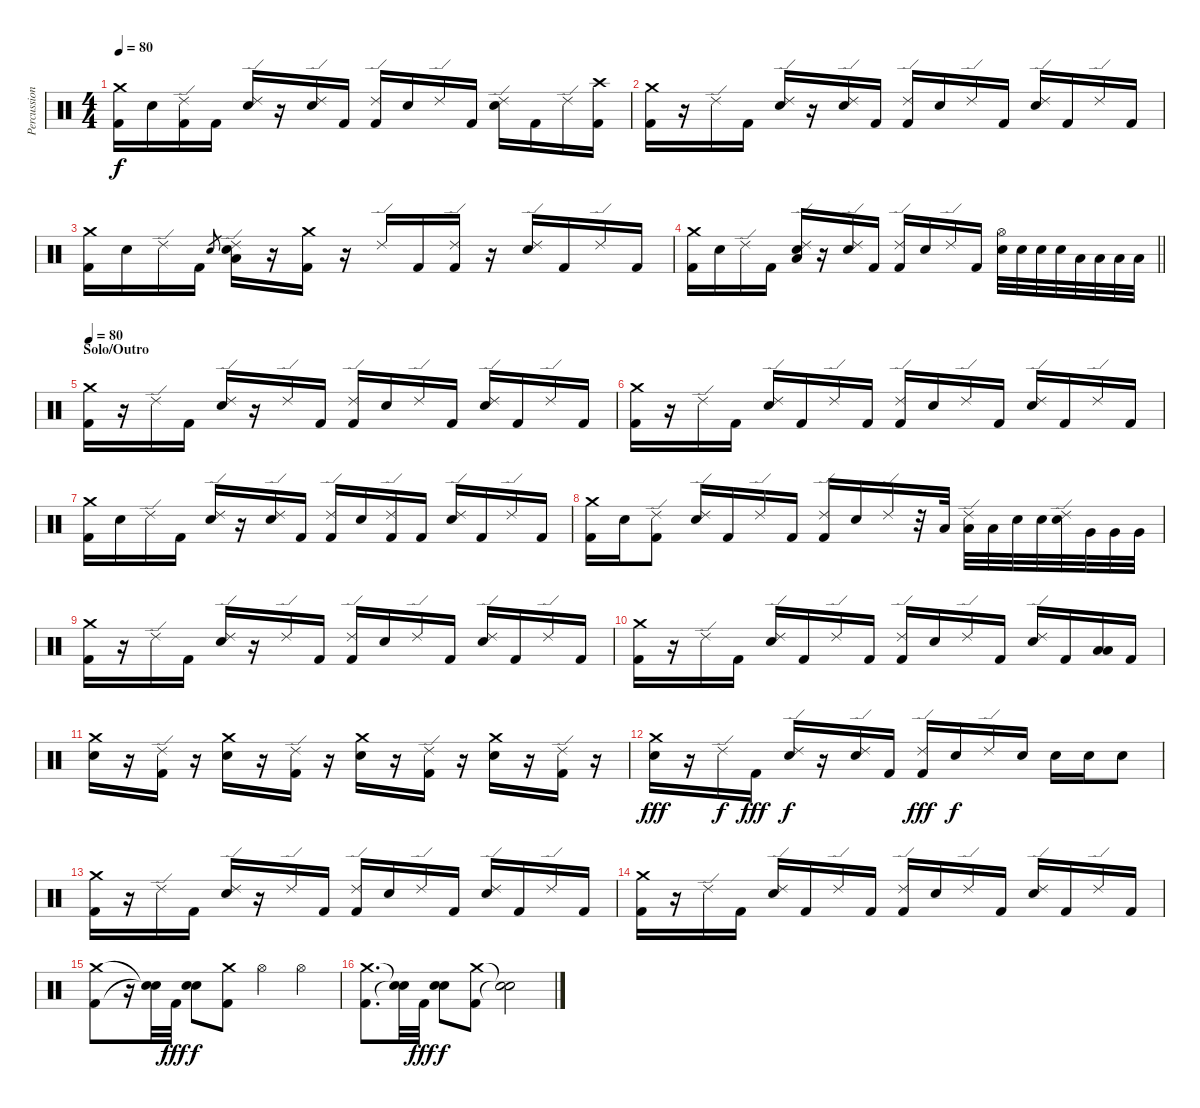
\track ("Percussion (Phillips)" "Percussion") {instrument percussion}
\staff {score}
\articulation defaults
\ts (4 4)
\tempo 80
\clef neutral
\ks c
("Crash medium (hit)" "Kick (hit) 2").16{dy f} "Electric Snare (hit)".16 ("Ride (edge) 2" "Kick (hit) 2").16 "Kick (hit) 2".16 ("Ride (edge) 2" "Electric Snare (hit)").16 r.16 ("Ride (edge) 2" "Electric Snare (hit)").16 "Kick (hit) 2".16 ("Ride (edge) 2" "Kick (hit) 2").16 "Electric Snare (hit)".16 "Ride (edge) 2".16 "Kick (hit) 2".16 ("Ride (edge) 2" "Electric Snare (hit)").16 "Kick (hit) 2".16 "Ride (edge) 2".16 ("Crash high (hit)" "Kick (hit) 2").16 |
("Crash medium (hit)" "Kick (hit) 2").16 r.16 "Ride (edge) 2".16 "Kick (hit) 2".16 ("Ride (edge) 2" "Electric Snare (hit)").16 r.16 ("Ride (edge) 2" "Electric Snare (hit)").16 "Kick (hit) 2".16 ("Ride (edge) 2" "Kick (hit) 2").16 "Electric Snare (hit)".16 "Ride (edge) 2".16 "Kick (hit) 2".16 ("Ride (edge) 2" "Electric Snare (hit)").16 "Kick (hit) 2".16 "Ride (edge) 2".16 "Kick (hit) 2".16 |
("Crash medium (hit)" "Kick (hit) 2").16 "Electric Snare (hit)".16 "Ride (edge) 2".16 "Kick (hit) 2".16 "Electric Snare (hit)".8{gr} ("Low Tom (hit)" "Ride (edge) 2" "Electric Snare (hit)").16 r.16 ("Crash medium (hit)" "Kick (hit) 2").16 r.16 "Ride (edge) 2".16 "Kick (hit) 2".16 ("Ride (edge) 2" "Kick (hit) 2").16 r.16 ("Ride (edge) 2" "Electric Snare (hit)").16 "Kick (hit) 2".16 "Ride (edge) 2".16 "Kick (hit) 2".16 |
\barLineRight lightlight
("Crash medium (hit)" "Kick (hit) 2").16 "Electric Snare (hit)".16 "Ride (edge) 2".16 "Kick (hit) 2".16 ("Low Tom (hit)" "Ride (edge) 2" "Electric Snare (hit)").16 r.16 ("Ride (edge) 2" "Electric Snare (hit)").16 "Kick (hit) 2".16 ("Ride (edge) 2" "Kick (hit) 2").16 "Electric Snare (hit)".16 "Ride (edge) 2".16 "Kick (hit) 2".16 ("Hi-Hat (open)" "Electric Snare (hit)").32 "Electric Snare (hit)".32 "Electric Snare (hit)".32 "Electric Snare (hit)".32 "Low Tom (hit)".32 "Low Tom (hit)".32 "Low Tom (hit)".32 "Low Tom (hit)".32 |
\section ("" "Solo/Outro")
\tempo 80
("Crash medium (hit)" "Kick (hit) 2").16 r.16 "Ride (edge) 2".16 "Kick (hit) 2".16 ("Ride (edge) 2" "Electric Snare (hit)").16 r.16 "Ride (edge) 2".16 "Kick (hit) 2".16 ("Ride (edge) 2" "Kick (hit) 2").16 "Electric Snare (hit)".16 "Ride (edge) 2".16 "Kick (hit) 2".16 ("Ride (edge) 2" "Electric Snare (hit)").16 "Kick (hit) 2".16 "Ride (edge) 2".16 "Kick (hit) 2".16 |
("Crash medium (hit)" "Kick (hit) 2").16 r.16 "Ride (edge) 2".16 "Kick (hit) 2".16 ("Ride (edge) 2" "Electric Snare (hit)").16 "Kick (hit) 2".16 "Ride (edge) 2".16 "Kick (hit) 2".16 ("Ride (edge) 2" "Kick (hit) 2").16 "Electric Snare (hit)".16 "Ride (edge) 2".16 "Kick (hit) 2".16 ("Ride (edge) 2" "Electric Snare (hit)").16 "Kick (hit) 2".16 "Ride (edge) 2".16 "Kick (hit) 2".16 |
("Crash medium (hit)" "Kick (hit) 2").16 "Electric Snare (hit)".16 "Ride (edge) 2".16 "Kick (hit) 2".16 ("Ride (edge) 2" "Electric Snare (hit)").16 r.16 ("Ride (edge) 2" "Electric Snare (hit)").16 "Kick (hit) 2".16 ("Ride (edge) 2" "Kick (hit) 2").16 "Electric Snare (hit)".16 ("Ride (edge) 2" "Kick (hit) 2").16 "Kick (hit) 2".16 ("Ride (edge) 2" "Electric Snare (hit)").16 "Kick (hit) 2".16 "Ride (edge) 2".16 "Kick (hit) 2".16 |
("Crash medium (hit)" "Kick (hit) 2").16 "Electric Snare (hit)".16 ("Ride (edge) 2" "Kick (hit) 2").8 ("Ride (edge) 2" "Electric Snare (hit)").16 "Kick (hit) 2".16 "Ride (edge) 2".16 "Kick (hit) 2".16 ("Ride (edge) 2" "Kick (hit) 2").16 "Electric Snare (hit)".16 "Ride (edge) 2".16 r.32 "Low Tom (hit)".32 ("Ride (edge) 2" "Low Tom (hit)").32 "Low Tom (hit)".32 "Electric Snare (hit)".32 "Electric Snare (hit)".32 ("Ride (edge) 2" "Electric Snare (hit)").32 "Very Low Tom (hit)".32 "Very Low Tom (hit)".32 "Very Low Tom (hit)".32 |
("Crash medium (hit)" "Kick (hit) 2").16 r.16 "Ride (edge) 2".16 "Kick (hit) 2".16 ("Ride (edge) 2" "Electric Snare (hit)").16 r.16 "Ride (edge) 2".16 "Kick (hit) 2".16 ("Ride (edge) 2" "Kick (hit) 2").16 "Electric Snare (hit)".16 "Ride (edge) 2".16 "Kick (hit) 2".16 ("Ride (edge) 2" "Electric Snare (hit)").16 "Kick (hit) 2".16 "Ride (edge) 2".16 "Kick (hit) 2".16 |
("Crash medium (hit)" "Kick (hit) 2").16 r.16 "Ride (edge) 2".16 "Kick (hit) 2".16 ("Ride (edge) 2" "Electric Snare (hit)").16 "Kick (hit) 2".16 "Ride (edge) 2".16 "Kick (hit) 2".16 ("Ride (edge) 2" "Kick (hit) 2").16 "Electric Snare (hit)".16 "Ride (edge) 2".16 "Kick (hit) 2".16 ("Ride (edge) 2" "Electric Snare (hit)").16 "Kick (hit) 2".16 ("Low Tom (hit)" "Low Tom (hit)").16 "Kick (hit) 2".16 |
("Crash medium (hit)" "Electric Snare (hit)").16 r.16 ("Ride (edge) 2" "Kick (hit) 2").16 r.16 ("Crash medium (hit)" "Electric Snare (hit)").16 r.16 ("Ride (edge) 2" "Kick (hit) 2").16 r.16 ("Crash medium (hit)" "Electric Snare (hit)").16 r.16 ("Ride (edge) 2" "Kick (hit) 2").16 r.16 ("Crash medium (hit)" "Electric Snare (hit)").16 r.16 ("Ride (edge) 2" "Kick (hit) 2").16 r.16 |
("Crash medium (hit)" "Electric Snare (hit)").16{dy fff} r.16 "Ride (edge) 2".16{dy f} "Kick (hit) 2".16{dy fff} ("Ride (edge) 2" "Electric Snare (hit)").16{dy f} r.16 ("Ride (edge) 2" "Electric Snare (hit)").16 "Kick (hit) 2".16 ("Ride (edge) 2" "Kick (hit) 2").16{dy fff} "Electric Snare (hit)".16{dy f} "Ride (edge) 2".16 "Electric Snare (hit)".16 "Electric Snare (hit)".16 "Electric Snare (hit)".16 "Electric Snare (hit)".8 |
("Crash medium (hit)" "Kick (hit) 2").16 r.16 "Ride (edge) 2".16 "Kick (hit) 2".16 ("Ride (edge) 2" "Electric Snare (hit)").16 r.16 "Ride (edge) 2".16 "Kick (hit) 2".16 ("Ride (edge) 2" "Kick (hit) 2").16 "Electric Snare (hit)".16 "Ride (edge) 2".16 "Kick (hit) 2".16 ("Ride (edge) 2" "Electric Snare (hit)").16 "Kick (hit) 2".16 "Ride (edge) 2".16 "Kick (hit) 2".16 |
("Crash medium (hit)" "Kick (hit) 2").16 r.16 "Ride (edge) 2".16 "Kick (hit) 2".16 ("Ride (edge) 2" "Electric Snare (hit)").16 "Kick (hit) 2".16 "Ride (edge) 2".16 "Kick (hit) 2".16 ("Ride (edge) 2" "Kick (hit) 2").16 "Electric Snare (hit)".16 "Ride (edge) 2".16 "Kick (hit) 2".16 ("Ride (edge) 2" "Electric Snare (hit)").16 "Kick (hit) 2".16 "Ride (edge) 2".16 "Kick (hit) 2".16 |
("Crash medium (hit)" "Kick (hit) 2").8 r.16 ("Snare (hit)"{t} "Snare (hit)"{t}).32 "Kick (hit) 2".32{dy fff} ("Electric Snare (hit)" "Electric Snare (hit)").8{dy f} ("Crash medium (hit)" "Kick (hit) 2").8 "Hi-Hat (open)".4 "Hi-Hat (open)".4 |
("Crash medium (hit)" "Kick (hit) 2").8{d} ("Snare (hit)"{t} "Snare (hit)"{t}).32 "Kick (hit) 2".32{dy fff} ("Electric Snare (hit)" "Electric Snare (hit)").8{dy f} ("Crash medium (hit)" "Kick (hit) 2").8 ("Snare (hit)"{t} "Snare (hit)"{t}).2
